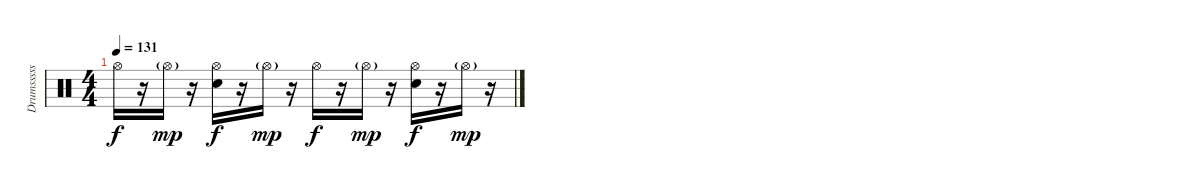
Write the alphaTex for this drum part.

\track ("Drumsssss" "Drumsssss") {instrument percussion}
\staff {score}
\articulation defaults
\ts (4 4)
\tempo 131
\clef neutral
\ks c "Hi-Hat (open)".16{dy f}
r.16 "Hi-Hat (open)"{g}.16{dy mp} r.16 ("Hi-Hat (open)" "Snare (hit) 2").16{dy f} r.16 "Hi-Hat (open)"{g}.16{dy mp} r.16 "Hi-Hat (open)".16{dy f} r.16 "Hi-Hat (open)"{g}.16{dy mp} r.16 ("Hi-Hat (open)" "Snare (hit) 2").16{dy f} r.16 "Hi-Hat (open)"{g}.16{dy mp} r.16
